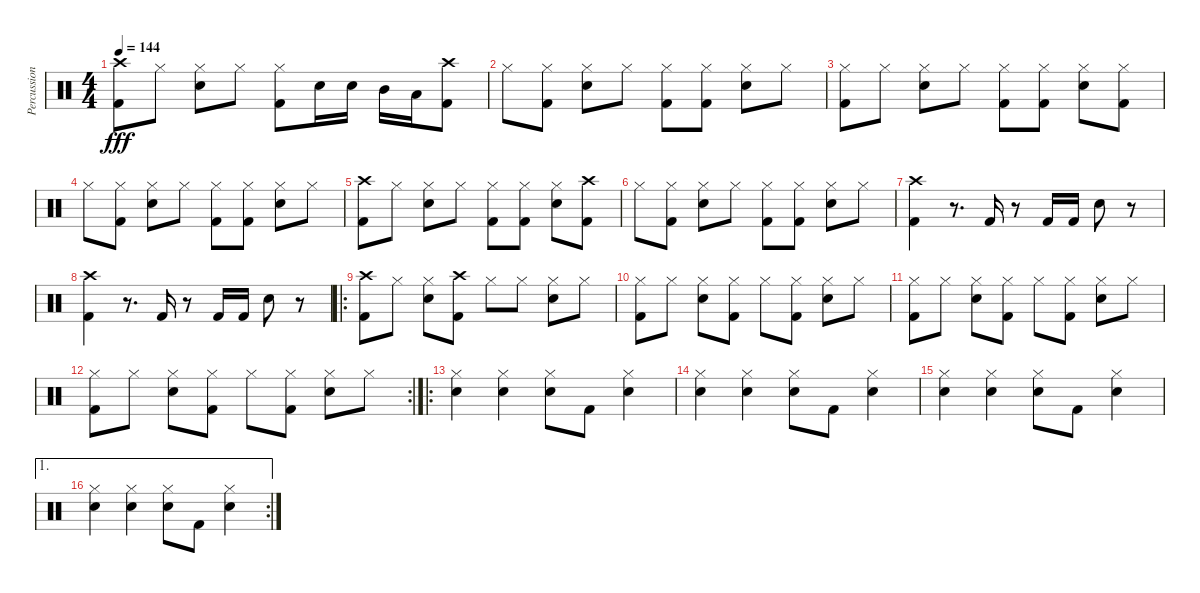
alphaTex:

\track ("Percussion" "Percussion") {instrument percussion}
\staff {score}
\articulation defaults
\ts (4 4)
\tempo 144
\clef neutral
\ks c
("Kick (hit) 2" "Crash high (hit)").8{dy fff} "Hi-Hat (closed)".8 ("Snare (hit) 2" "Hi-Hat (closed)").8 "Hi-Hat (closed)".8 ("Kick (hit) 2" "Hi-Hat (closed)").8 "Snare (hit) 2".16 "Snare (hit) 2".16 "Mid Tom (hit)".16 "Low Tom (hit)".16 ("Kick (hit) 2" "Crash high (hit)").8 |
"Hi-Hat (closed)".8 ("Kick (hit) 2" "Hi-Hat (closed)").8 ("Snare (hit) 2" "Hi-Hat (closed)").8 "Hi-Hat (closed)".8 ("Kick (hit) 2" "Hi-Hat (closed)").8 ("Kick (hit) 2" "Hi-Hat (closed)").8 ("Snare (hit) 2" "Hi-Hat (closed)").8 "Hi-Hat (closed)".8 |
("Kick (hit) 2" "Hi-Hat (closed)").8 "Hi-Hat (closed)".8 ("Snare (hit) 2" "Hi-Hat (closed)").8 "Hi-Hat (closed)".8 ("Kick (hit) 2" "Hi-Hat (closed)").8 ("Kick (hit) 2" "Hi-Hat (closed)").8 ("Snare (hit) 2" "Hi-Hat (closed)").8 ("Kick (hit) 2" "Hi-Hat (closed)").8 |
"Hi-Hat (closed)".8 ("Kick (hit) 2" "Hi-Hat (closed)").8 ("Snare (hit) 2" "Hi-Hat (closed)").8 "Hi-Hat (closed)".8 ("Kick (hit) 2" "Hi-Hat (closed)").8 ("Kick (hit) 2" "Hi-Hat (closed)").8 ("Snare (hit) 2" "Hi-Hat (closed)").8 "Hi-Hat (closed)".8 |
("Kick (hit) 2" "Crash high (hit)").8 "Hi-Hat (closed)".8 ("Snare (hit) 2" "Hi-Hat (closed)").8 "Hi-Hat (closed)".8 ("Kick (hit) 2" "Hi-Hat (closed)").8 ("Kick (hit) 2" "Hi-Hat (closed)").8 ("Snare (hit) 2" "Hi-Hat (closed)").8 ("Kick (hit) 2" "Crash high (hit)").8 |
"Hi-Hat (closed)".8 ("Kick (hit) 2" "Hi-Hat (closed)").8 ("Snare (hit) 2" "Hi-Hat (closed)").8 "Hi-Hat (closed)".8 ("Kick (hit) 2" "Hi-Hat (closed)").8 ("Kick (hit) 2" "Hi-Hat (closed)").8 ("Snare (hit) 2" "Hi-Hat (closed)").8 "Hi-Hat (closed)".8 |
("Kick (hit) 2" "Crash high (hit)").4 r.8{d} "Kick (hit) 2".16 r.8 "Kick (hit) 2".16 "Kick (hit) 2".16 "Snare (hit) 2".8 r.8 |
("Kick (hit) 2" "Crash high (hit)").4 r.8{d} "Kick (hit) 2".16 r.8 "Kick (hit) 2".16 "Kick (hit) 2".16 "Snare (hit) 2".8 r.8 |
\ro
("Kick (hit) 2" "Crash high (hit)").8 "Hi-Hat (closed)".8 ("Snare (hit) 2" "Hi-Hat (closed)").8 ("Kick (hit) 2" "Crash high (hit)").8 "Hi-Hat (closed)".8 "Hi-Hat (closed)".8 ("Snare (hit) 2" "Hi-Hat (closed)").8 "Hi-Hat (closed)".8 |
("Kick (hit) 2" "Hi-Hat (closed)").8 "Hi-Hat (closed)".8 ("Snare (hit) 2" "Hi-Hat (closed)").8 ("Kick (hit) 2" "Hi-Hat (closed)").8 "Hi-Hat (closed)".8 ("Kick (hit) 2" "Hi-Hat (closed)").8 ("Snare (hit) 2" "Hi-Hat (closed)").8 "Hi-Hat (closed)".8 |
("Kick (hit) 2" "Hi-Hat (closed)").8 "Hi-Hat (closed)".8 ("Snare (hit) 2" "Hi-Hat (closed)").8 ("Kick (hit) 2" "Hi-Hat (closed)").8 "Hi-Hat (closed)".8 ("Kick (hit) 2" "Hi-Hat (closed)").8 ("Snare (hit) 2" "Hi-Hat (closed)").8 "Hi-Hat (closed)".8 |
\rc 2
("Kick (hit) 2" "Hi-Hat (closed)").8 "Hi-Hat (closed)".8 ("Snare (hit) 2" "Hi-Hat (closed)").8 ("Kick (hit) 2" "Hi-Hat (closed)").8 "Hi-Hat (closed)".8 ("Kick (hit) 2" "Hi-Hat (closed)").8 ("Snare (hit) 2" "Hi-Hat (closed)").8 "Hi-Hat (closed)".8 |
\ro
("Snare (hit) 2" "Hi-Hat (closed)").4 ("Snare (hit) 2" "Hi-Hat (closed)").4 ("Snare (hit) 2" "Hi-Hat (closed)").8 "Kick (hit) 2".8 ("Snare (hit) 2" "Hi-Hat (closed)").4 |
("Snare (hit) 2" "Hi-Hat (closed)").4 ("Snare (hit) 2" "Hi-Hat (closed)").4 ("Snare (hit) 2" "Hi-Hat (closed)").8 "Kick (hit) 2".8 ("Snare (hit) 2" "Hi-Hat (closed)").4 |
("Snare (hit) 2" "Hi-Hat (closed)").4 ("Snare (hit) 2" "Hi-Hat (closed)").4 ("Snare (hit) 2" "Hi-Hat (closed)").8 "Kick (hit) 2".8 ("Snare (hit) 2" "Hi-Hat (closed)").4 |
\ae 1
\rc 2
("Snare (hit) 2" "Hi-Hat (closed)").4 ("Snare (hit) 2" "Hi-Hat (closed)").4 ("Snare (hit) 2" "Hi-Hat (closed)").8 "Kick (hit) 2".8 ("Snare (hit) 2" "Hi-Hat (closed)").4
